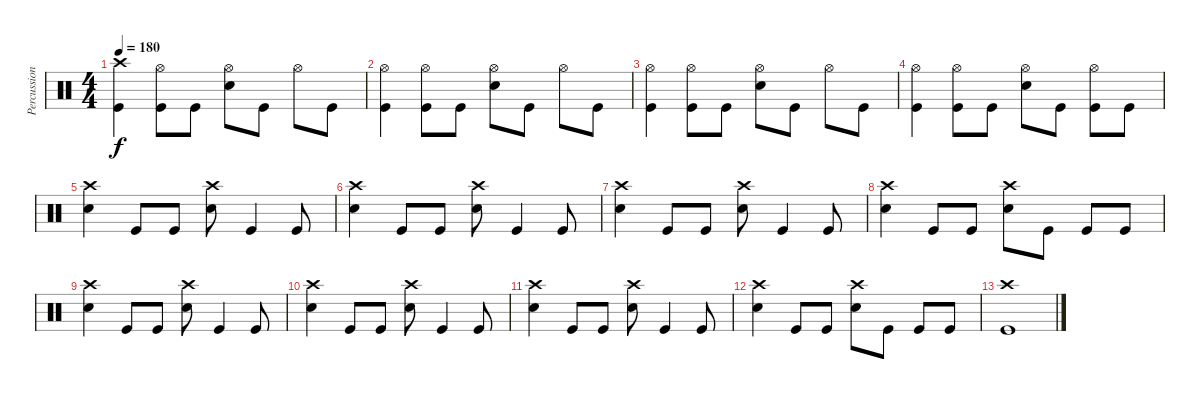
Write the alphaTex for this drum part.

\track ("Percussion" "Percussion") {instrument percussion}
\staff {score}
\articulation defaults
\ts (4 4)
\tempo 180
\clef neutral
\ks c
("Crash high (hit)" "Kick (hit)").4{dy f} ("Hi-Hat (open)" "Kick (hit)").8 "Kick (hit)".8 ("Snare (hit) 2" "Hi-Hat (open)").8 "Kick (hit)".8 "Hi-Hat (open)".8 "Kick (hit)".8 |
("Hi-Hat (open)" "Kick (hit)").4 ("Hi-Hat (open)" "Kick (hit)").8 "Kick (hit)".8 ("Snare (hit) 2" "Hi-Hat (open)").8 "Kick (hit)".8 "Hi-Hat (open)".8 "Kick (hit)".8 |
("Hi-Hat (open)" "Kick (hit)").4 ("Hi-Hat (open)" "Kick (hit)").8 "Kick (hit)".8 ("Snare (hit) 2" "Hi-Hat (open)").8 "Kick (hit)".8 "Hi-Hat (open)".8 "Kick (hit)".8 |
("Hi-Hat (open)" "Kick (hit)").4 ("Hi-Hat (open)" "Kick (hit)").8 "Kick (hit)".8 ("Snare (hit) 2" "Hi-Hat (open)").8 "Kick (hit)".8 ("Hi-Hat (open)" "Kick (hit)").8 "Kick (hit)".8 |
("Crash high (hit)" "Snare (hit) 2").4 "Kick (hit)".8 "Kick (hit)".8 ("Crash high (hit)" "Snare (hit) 2").8 "Kick (hit)".4 "Kick (hit)".8 |
("Crash high (hit)" "Snare (hit) 2").4 "Kick (hit)".8 "Kick (hit)".8 ("Crash high (hit)" "Snare (hit) 2").8 "Kick (hit)".4 "Kick (hit)".8 |
("Crash high (hit)" "Snare (hit) 2").4 "Kick (hit)".8 "Kick (hit)".8 ("Crash high (hit)" "Snare (hit) 2").8 "Kick (hit)".4 "Kick (hit)".8 |
("Crash high (hit)" "Snare (hit) 2").4 "Kick (hit)".8 "Kick (hit)".8 ("Crash high (hit)" "Snare (hit) 2").8 "Kick (hit)".8 "Kick (hit)".8 "Kick (hit)".8 |
("Crash high (hit)" "Snare (hit) 2").4 "Kick (hit)".8 "Kick (hit)".8 ("Crash high (hit)" "Snare (hit) 2").8 "Kick (hit)".4 "Kick (hit)".8 |
("Crash high (hit)" "Snare (hit) 2").4 "Kick (hit)".8 "Kick (hit)".8 ("Crash high (hit)" "Snare (hit) 2").8 "Kick (hit)".4 "Kick (hit)".8 |
("Crash high (hit)" "Snare (hit) 2").4 "Kick (hit)".8 "Kick (hit)".8 ("Crash high (hit)" "Snare (hit) 2").8 "Kick (hit)".4 "Kick (hit)".8 |
("Crash high (hit)" "Snare (hit) 2").4 "Kick (hit)".8 "Kick (hit)".8 ("Crash high (hit)" "Snare (hit) 2").8 "Kick (hit)".8 "Kick (hit)".8 "Kick (hit)".8 |
("Crash high (hit)" "Kick (hit)").1
